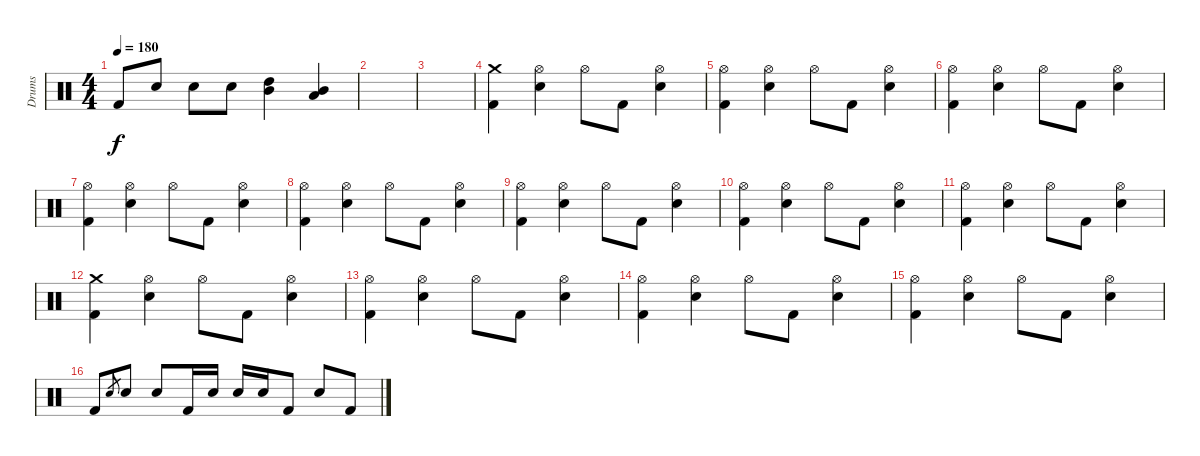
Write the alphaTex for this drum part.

\track ("Drums" "Drums") {instrument percussion}
\staff {score}
\articulation defaults
\ts (4 4)
\tempo 180
\clef neutral
\ks c "Kick (hit) 2".8{dy f} "Electric Snare (hit)".8 "Electric Snare (hit)".8 "Electric Snare (hit)".8
("High Tom (hit)" "Mid Tom (hit)").4 ("Mid Tom (hit)" "Low Tom (hit)").4 |
|
|
("Crash medium (hit)" "Kick (hit) 2").4 ("Hi-Hat (open)" "Electric Snare (hit)").4 "Hi-Hat (open)".8 "Kick (hit) 2".8 ("Hi-Hat (open)" "Electric Snare (hit)").4 |
("Hi-Hat (open)" "Kick (hit) 2").4 ("Hi-Hat (open)" "Electric Snare (hit)").4 "Hi-Hat (open)".8 "Kick (hit) 2".8 ("Hi-Hat (open)" "Electric Snare (hit)").4 |
("Hi-Hat (open)" "Kick (hit) 2").4 ("Hi-Hat (open)" "Electric Snare (hit)").4 "Hi-Hat (open)".8 "Kick (hit) 2".8 ("Hi-Hat (open)" "Electric Snare (hit)").4 |
("Hi-Hat (open)" "Kick (hit) 2").4 ("Hi-Hat (open)" "Electric Snare (hit)").4 "Hi-Hat (open)".8 "Kick (hit) 2".8 ("Hi-Hat (open)" "Electric Snare (hit)").4 |
("Hi-Hat (open)" "Kick (hit) 2").4 ("Hi-Hat (open)" "Electric Snare (hit)").4 "Hi-Hat (open)".8 "Kick (hit) 2".8 ("Hi-Hat (open)" "Electric Snare (hit)").4 |
("Hi-Hat (open)" "Kick (hit) 2").4 ("Hi-Hat (open)" "Electric Snare (hit)").4 "Hi-Hat (open)".8 "Kick (hit) 2".8 ("Hi-Hat (open)" "Electric Snare (hit)").4 |
("Hi-Hat (open)" "Kick (hit) 2").4 ("Hi-Hat (open)" "Electric Snare (hit)").4 "Hi-Hat (open)".8 "Kick (hit) 2".8 ("Hi-Hat (open)" "Electric Snare (hit)").4 |
("Hi-Hat (open)" "Kick (hit) 2").4 ("Hi-Hat (open)" "Electric Snare (hit)").4 "Hi-Hat (open)".8 "Kick (hit) 2".8 ("Hi-Hat (open)" "Electric Snare (hit)").4 |
("Crash medium (hit)" "Kick (hit) 2").4 ("Hi-Hat (open)" "Electric Snare (hit)").4 "Hi-Hat (open)".8 "Kick (hit) 2".8 ("Hi-Hat (open)" "Electric Snare (hit)").4 |
("Hi-Hat (open)" "Kick (hit) 2").4 ("Hi-Hat (open)" "Electric Snare (hit)").4 "Hi-Hat (open)".8 "Kick (hit) 2".8 ("Hi-Hat (open)" "Electric Snare (hit)").4 |
("Hi-Hat (open)" "Kick (hit) 2").4 ("Hi-Hat (open)" "Electric Snare (hit)").4 "Hi-Hat (open)".8 "Kick (hit) 2".8 ("Hi-Hat (open)" "Electric Snare (hit)").4 |
("Hi-Hat (open)" "Kick (hit) 2").4 ("Hi-Hat (open)" "Electric Snare (hit)").4 "Hi-Hat (open)".8 "Kick (hit) 2".8 ("Hi-Hat (open)" "Electric Snare (hit)").4 |
"Kick (hit) 2".8 "Electric Snare (hit)".8{gr} "Electric Snare (hit)".8 "Electric Snare (hit)".8 "Kick (hit) 2".16 "Electric Snare (hit)".16 "Electric Snare (hit)".16 "Electric Snare (hit)".16 "Kick (hit) 2".8 "Electric Snare (hit)".8 "Kick (hit) 2".8
